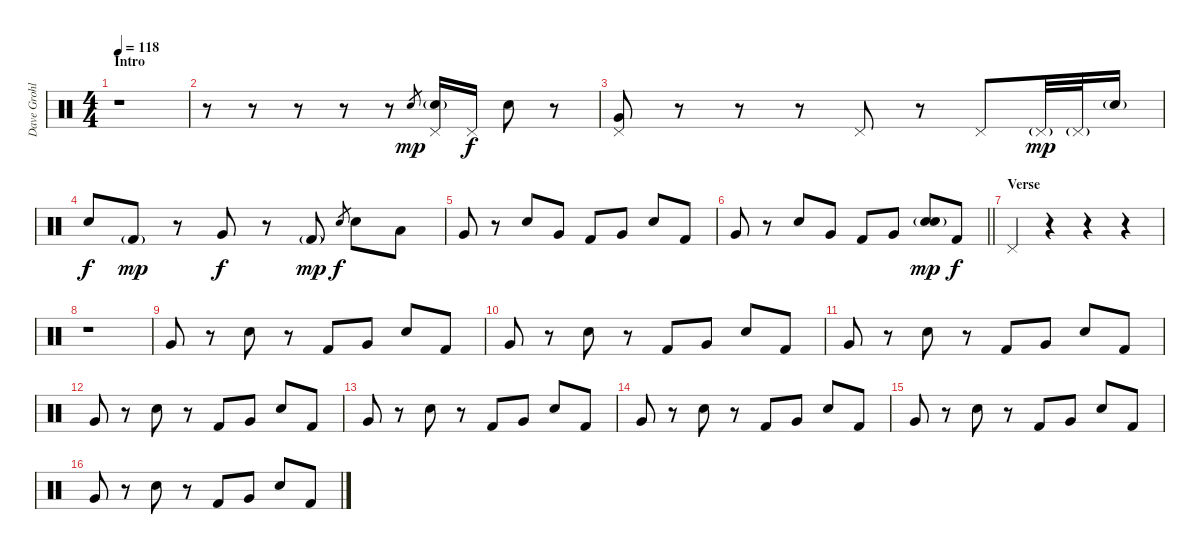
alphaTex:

\track ("Dave Grohl - Drums" "Dave Grohl") {instrument percussion}
\staff {score}
\articulation defaults
\ts (4 4)
\section ("" "Intro")
\tempo 118
\clef neutral
\ks c
r.1{dy mp} |
r.8 r.8 r.8 r.8 r.8 "Electric Snare (hit)".8{gr} ("Pedal Hi-Hat (hit)" "Electric Snare (hit)"{g}).16 "Pedal Hi-Hat (hit)".16{dy f} "Electric Snare (hit)".8 r.8 |
("Pedal Hi-Hat (hit)" "Very Low Tom (hit)").8 r.8 r.8 r.8 "Pedal Hi-Hat (hit)".8 r.8 "Pedal Hi-Hat (hit)".8 "Pedal Hi-Hat (hit)"{g}.32{dy mp} "Pedal Hi-Hat (hit)"{g}.32 "Electric Snare (hit)"{g}.16 |
"Electric Snare (hit)".8{dy f} "Kick (hit) 2"{g}.8{dy mp} r.8 "Very Low Tom (hit)".8{dy f} r.8 "Kick (hit) 2"{g}.8{dy mp} "Electric Snare (hit)".8{gr dy f} "Electric Snare (hit)".8 "Low Floor Tom (hit)".8 |
"Very Low Tom (hit)".8 r.8 "Electric Snare (hit)".8 "Very Low Tom (hit)".8 "Kick (hit) 2".8 "Very Low Tom (hit)".8 "Electric Snare (hit)".8 "Kick (hit) 2".8 |
\barLineRight lightlight "Very Low Tom (hit)".8
r.8 "Electric Snare (hit)".8 "Very Low Tom (hit)".8 "Kick (hit) 2".8 "Very Low Tom (hit)".8 ("Electric Snare (hit)"{g} "Snare (hit) 2").8{dy mp} "Kick (hit) 2".8{dy f} |
\section ("" "Verse")
"Pedal Hi-Hat (hit)".4 r.4 r.4 r.4 |
r.1 |
"Very Low Tom (hit)".8{volume 10} r.8 "Electric Snare (hit)".8 r.8 "Kick (hit) 2".8 "Very Low Tom (hit)".8 "Electric Snare (hit)".8 "Kick (hit) 2".8 |
"Very Low Tom (hit)".8 r.8 "Electric Snare (hit)".8 r.8 "Kick (hit) 2".8 "Very Low Tom (hit)".8 "Electric Snare (hit)".8 "Kick (hit) 2".8 |
"Very Low Tom (hit)".8 r.8 "Electric Snare (hit)".8 r.8 "Kick (hit) 2".8 "Very Low Tom (hit)".8 "Electric Snare (hit)".8 "Kick (hit) 2".8 |
"Very Low Tom (hit)".8 r.8 "Electric Snare (hit)".8 r.8 "Kick (hit) 2".8 "Very Low Tom (hit)".8 "Electric Snare (hit)".8 "Kick (hit) 2".8 |
"Very Low Tom (hit)".8 r.8 "Electric Snare (hit)".8 r.8 "Kick (hit) 2".8 "Very Low Tom (hit)".8 "Electric Snare (hit)".8 "Kick (hit) 2".8 |
"Very Low Tom (hit)".8 r.8 "Electric Snare (hit)".8 r.8 "Kick (hit) 2".8 "Very Low Tom (hit)".8 "Electric Snare (hit)".8 "Kick (hit) 2".8 |
"Very Low Tom (hit)".8 r.8 "Electric Snare (hit)".8 r.8 "Kick (hit) 2".8 "Very Low Tom (hit)".8 "Electric Snare (hit)".8 "Kick (hit) 2".8 |
"Very Low Tom (hit)".8 r.8 "Electric Snare (hit)".8 r.8 "Kick (hit) 2".8 "Very Low Tom (hit)".8 "Electric Snare (hit)".8 "Kick (hit) 2".8
